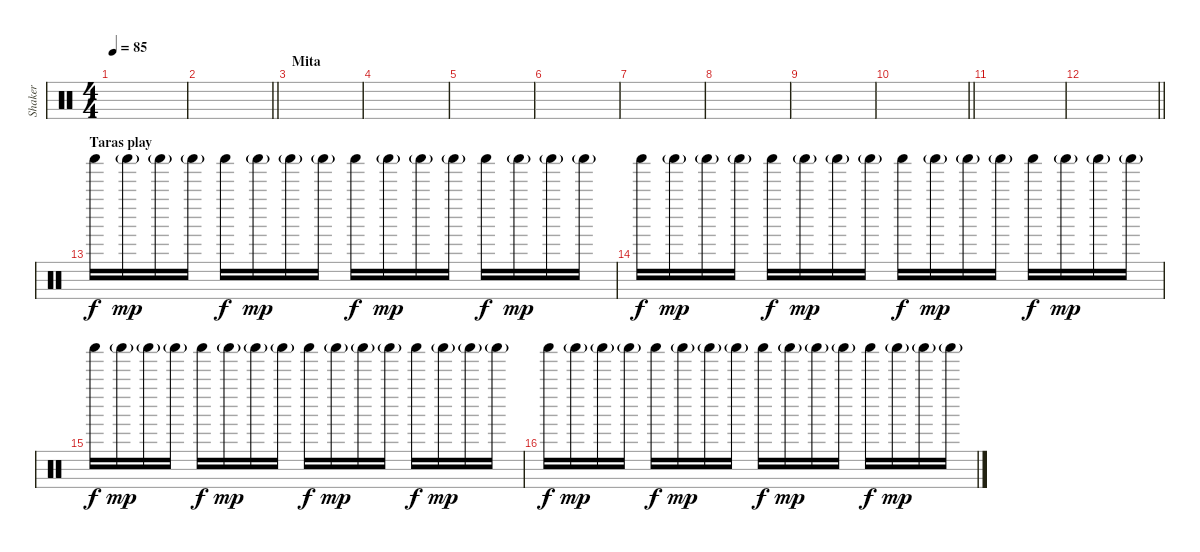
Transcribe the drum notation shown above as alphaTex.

\track ("Shaker" "Shaker") {instrument percussion}
\staff {score}
\articulation defaults
\ts (4 4)
\tempo 85
\clef neutral
\ks c
|
\barLineRight lightlight
|
\section ("" "Mita")
|
|
|
|
|
|
|
\barLineRight lightlight
|
|
\barLineRight lightlight
|
\section ("" "Taras play")
"Shaker (hit)".16 "Shaker (hit)"{g}.16{dy mp} "Shaker (hit)"{g}.16 "Shaker (hit)"{g}.16 "Shaker (hit)".16{dy f} "Shaker (hit)"{g}.16{dy mp} "Shaker (hit)"{g}.16 "Shaker (hit)"{g}.16 "Shaker (hit)".16{dy f} "Shaker (hit)"{g}.16{dy mp} "Shaker (hit)"{g}.16 "Shaker (hit)"{g}.16 "Shaker (hit)".16{dy f} "Shaker (hit)"{g}.16{dy mp} "Shaker (hit)"{g}.16 "Shaker (hit)"{g}.16 |
"Shaker (hit)".16{dy f} "Shaker (hit)"{g}.16{dy mp} "Shaker (hit)"{g}.16 "Shaker (hit)"{g}.16 "Shaker (hit)".16{dy f} "Shaker (hit)"{g}.16{dy mp} "Shaker (hit)"{g}.16 "Shaker (hit)"{g}.16 "Shaker (hit)".16{dy f} "Shaker (hit)"{g}.16{dy mp} "Shaker (hit)"{g}.16 "Shaker (hit)"{g}.16 "Shaker (hit)".16{dy f} "Shaker (hit)"{g}.16{dy mp} "Shaker (hit)"{g}.16 "Shaker (hit)"{g}.16 |
"Shaker (hit)".16{dy f} "Shaker (hit)"{g}.16{dy mp} "Shaker (hit)"{g}.16 "Shaker (hit)"{g}.16 "Shaker (hit)".16{dy f} "Shaker (hit)"{g}.16{dy mp} "Shaker (hit)"{g}.16 "Shaker (hit)"{g}.16 "Shaker (hit)".16{dy f} "Shaker (hit)"{g}.16{dy mp} "Shaker (hit)"{g}.16 "Shaker (hit)"{g}.16 "Shaker (hit)".16{dy f} "Shaker (hit)"{g}.16{dy mp} "Shaker (hit)"{g}.16 "Shaker (hit)"{g}.16 |
"Shaker (hit)".16{dy f} "Shaker (hit)"{g}.16{dy mp} "Shaker (hit)"{g}.16 "Shaker (hit)"{g}.16 "Shaker (hit)".16{dy f} "Shaker (hit)"{g}.16{dy mp} "Shaker (hit)"{g}.16 "Shaker (hit)"{g}.16 "Shaker (hit)".16{dy f} "Shaker (hit)"{g}.16{dy mp} "Shaker (hit)"{g}.16 "Shaker (hit)"{g}.16 "Shaker (hit)".16{dy f} "Shaker (hit)"{g}.16{dy mp} "Shaker (hit)"{g}.16 "Shaker (hit)"{g}.16
